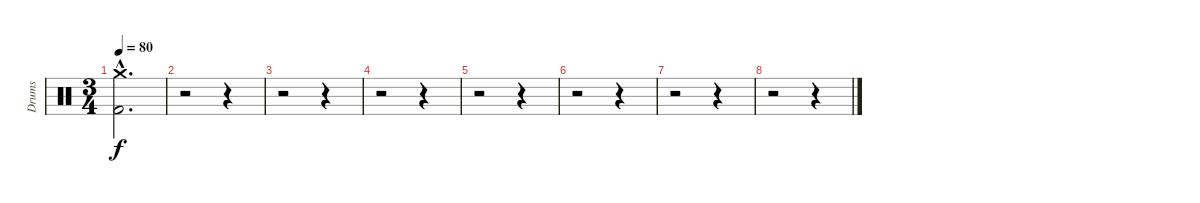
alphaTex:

\track ("Drums" "Drums") {instrument percussion}
\staff {score}
\articulation defaults
\ts (3 4)
\tempo 80
\clef neutral
\ks c
("Crash medium (hit)"{hac} "Kick (hit) 2"{hac}).2{d dy f} |
r.2 r.4 |
r.2 r.4 |
r.2 r.4 |
r.2 r.4 |
r.2 r.4 |
r.2 r.4 |
r.2 r.4
